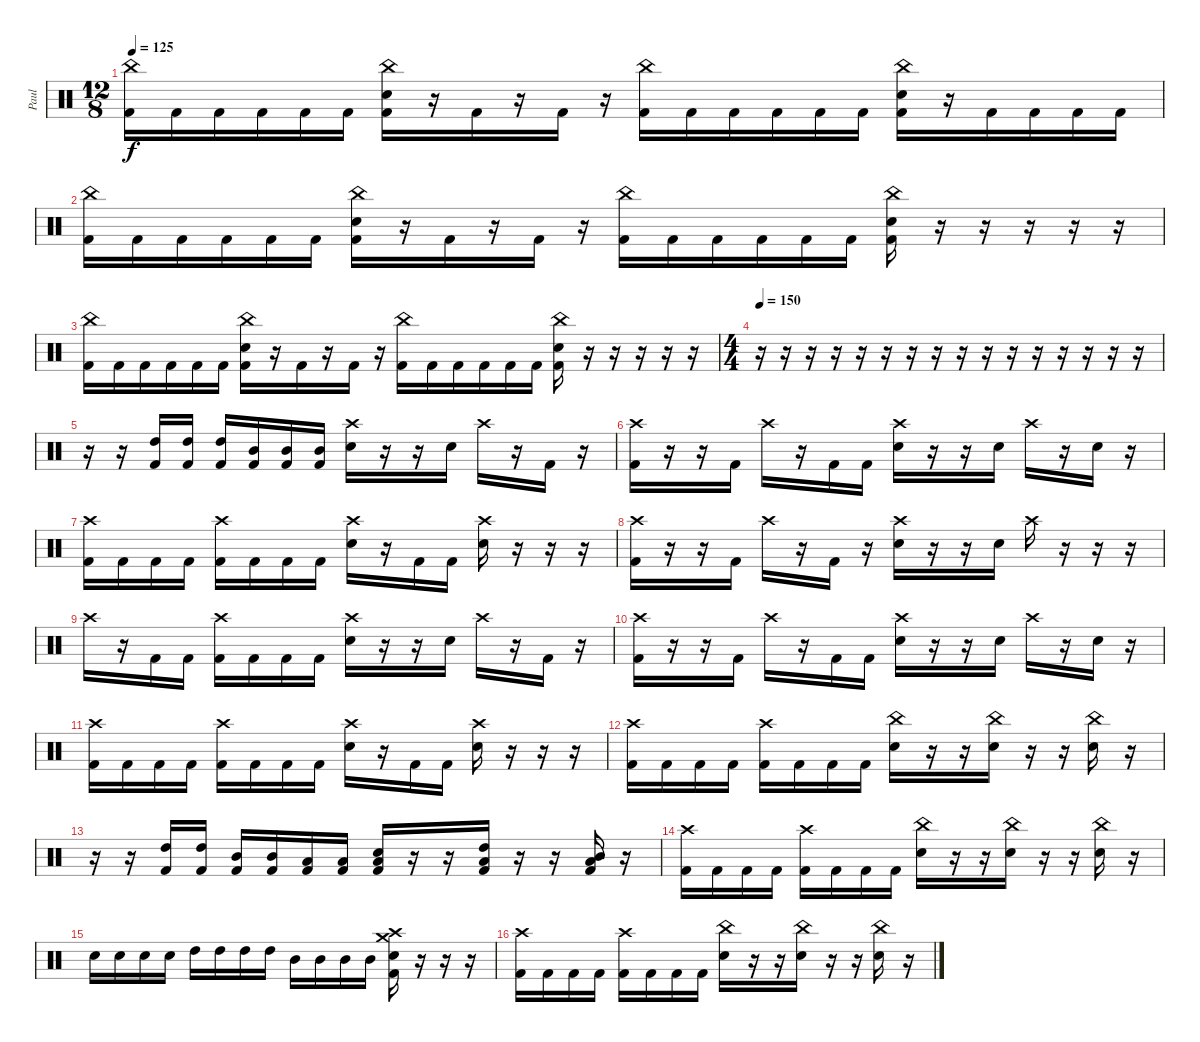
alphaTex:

\track ("Paul" "Paul") {instrument percussion}
\staff {score}
\articulation defaults
\ts (12 8)
\tempo 125
\clef neutral
\ks c
("China (hit)" "Kick (hit) 2").16{dy f} "Kick (hit) 2".16 "Kick (hit) 2".16 "Kick (hit) 2".16 "Kick (hit) 2".16 "Kick (hit) 2".16 ("China (hit)" "Electric Snare (hit)" "Kick (hit) 2").16 r.16 "Kick (hit) 2".16 r.16 "Kick (hit) 2".16 r.16 ("China (hit)" "Kick (hit) 2").16 "Kick (hit) 2".16 "Kick (hit) 2".16 "Kick (hit) 2".16 "Kick (hit) 2".16 "Kick (hit) 2".16 ("China (hit)" "Electric Snare (hit)" "Kick (hit) 2").16 r.16 "Kick (hit) 2".16 "Kick (hit) 2".16 "Kick (hit) 2".16 "Kick (hit) 2".16 |
("China (hit)" "Kick (hit) 2").16 "Kick (hit) 2".16 "Kick (hit) 2".16 "Kick (hit) 2".16 "Kick (hit) 2".16 "Kick (hit) 2".16 ("China (hit)" "Electric Snare (hit)" "Kick (hit) 2").16 r.16 "Kick (hit) 2".16 r.16 "Kick (hit) 2".16 r.16 ("China (hit)" "Kick (hit) 2").16 "Kick (hit) 2".16 "Kick (hit) 2".16 "Kick (hit) 2".16 "Kick (hit) 2".16 "Kick (hit) 2".16 ("China (hit)" "Electric Snare (hit)" "Kick (hit) 2").16 r.16 r.16 r.16 r.16 r.16 |
("China (hit)" "Kick (hit) 2").16 "Kick (hit) 2".16 "Kick (hit) 2".16 "Kick (hit) 2".16 "Kick (hit) 2".16 "Kick (hit) 2".16 ("China (hit)" "Electric Snare (hit)" "Kick (hit) 2").16 r.16 "Kick (hit) 2".16 r.16 "Kick (hit) 2".16 r.16 ("China (hit)" "Kick (hit) 2").16 "Kick (hit) 2".16 "Kick (hit) 2".16 "Kick (hit) 2".16 "Kick (hit) 2".16 "Kick (hit) 2".16 ("China (hit)" "Electric Snare (hit)" "Kick (hit) 2").16 r.16 r.16 r.16 r.16 r.16 |
\ts (4 4)
\tempo 150
r.16 r.16 r.16 r.16 r.16 r.16 r.16 r.16 r.16 r.16 r.16 r.16 r.16 r.16 r.16 r.16 |
r.16 r.16 ("High Tom (hit)" "Kick (hit) 2").16 ("High Tom (hit)" "Kick (hit) 2").16 ("High Tom (hit)" "Kick (hit) 2").16 ("Mid Tom (hit)" "Kick (hit) 2").16 ("Mid Tom (hit)" "Kick (hit) 2").16 ("Mid Tom (hit)" "Kick (hit) 2").16 ("Crash high (hit)" "Electric Snare (hit)").16 r.16 r.16 "Electric Snare (hit)".16 "Crash high (hit)".16 r.16 "Kick (hit) 2".16 r.16 |
("Crash high (hit)" "Kick (hit) 2").16 r.16 r.16 "Kick (hit) 2".16 "Crash high (hit)".16 r.16 "Kick (hit) 2".16 "Kick (hit) 2".16 ("Crash high (hit)" "Electric Snare (hit)").16 r.16 r.16 "Electric Snare (hit)".16 "Crash high (hit)".16 r.16 "Electric Snare (hit)".16 r.16 |
("Crash high (hit)" "Kick (hit) 2").16 "Kick (hit) 2".16 "Kick (hit) 2".16 "Kick (hit) 2".16 ("Crash high (hit)" "Kick (hit) 2").16 "Kick (hit) 2".16 "Kick (hit) 2".16 "Kick (hit) 2".16 ("Crash high (hit)" "Electric Snare (hit)").16 r.16 "Kick (hit) 2".16 "Kick (hit) 2".16 ("Crash high (hit)" "Electric Snare (hit)").16 r.16 r.16 r.16 |
("Crash high (hit)" "Kick (hit) 2").16 r.16 r.16 "Kick (hit) 2".16 "Crash high (hit)".16 r.16 "Kick (hit) 2".16 r.16 ("Crash high (hit)" "Electric Snare (hit)").16 r.16 r.16 "Electric Snare (hit)".16 "Crash high (hit)".16 r.16 r.16 r.16 |
"Crash high (hit)".16 r.16 "Kick (hit) 2".16 "Kick (hit) 2".16 ("Crash high (hit)" "Kick (hit) 2").16 "Kick (hit) 2".16 "Kick (hit) 2".16 "Kick (hit) 2".16 ("Crash high (hit)" "Electric Snare (hit)").16 r.16 r.16 "Electric Snare (hit)".16 "Crash high (hit)".16 r.16 "Kick (hit) 2".16 r.16 |
("Crash high (hit)" "Kick (hit) 2").16 r.16 r.16 "Kick (hit) 2".16 "Crash high (hit)".16 r.16 "Kick (hit) 2".16 "Kick (hit) 2".16 ("Crash high (hit)" "Electric Snare (hit)").16 r.16 r.16 "Electric Snare (hit)".16 "Crash high (hit)".16 r.16 "Electric Snare (hit)".16 r.16 |
("Crash high (hit)" "Kick (hit) 2").16 "Kick (hit) 2".16 "Kick (hit) 2".16 "Kick (hit) 2".16 ("Crash high (hit)" "Kick (hit) 2").16 "Kick (hit) 2".16 "Kick (hit) 2".16 "Kick (hit) 2".16 ("Crash high (hit)" "Electric Snare (hit)").16 r.16 "Kick (hit) 2".16 "Kick (hit) 2".16 ("Crash high (hit)" "Electric Snare (hit)").16 r.16 r.16 r.16 |
("Crash high (hit)" "Kick (hit) 2").16 "Kick (hit) 2".16 "Kick (hit) 2".16 "Kick (hit) 2".16 ("Crash high (hit)" "Kick (hit) 2").16 "Kick (hit) 2".16 "Kick (hit) 2".16 "Kick (hit) 2".16 ("China (hit)" "Electric Snare (hit)").16 r.16 r.16 ("China (hit)" "Electric Snare (hit)").16 r.16 r.16 ("China (hit)" "Electric Snare (hit)").16 r.16 |
r.16 r.16 ("High Tom (hit)" "Kick (hit) 2").16 ("High Tom (hit)" "Kick (hit) 2").16 ("Mid Tom (hit)" "Kick (hit) 2").16 ("Mid Tom (hit)" "Kick (hit) 2").16 ("Low Tom (hit)" "Kick (hit) 2").16 ("Low Tom (hit)" "Kick (hit) 2").16 ("Electric Snare (hit)" "Low Tom (hit)" "Kick (hit) 2").16 r.16 r.16 ("High Tom (hit)" "Low Tom (hit)" "Kick (hit) 2").16 r.16 r.16 ("Mid Tom (hit)" "Low Tom (hit)" "Kick (hit) 2").16 r.16 |
("Crash high (hit)" "Kick (hit) 2").16 "Kick (hit) 2".16 "Kick (hit) 2".16 "Kick (hit) 2".16 ("Crash high (hit)" "Kick (hit) 2").16 "Kick (hit) 2".16 "Kick (hit) 2".16 "Kick (hit) 2".16 ("China (hit)" "Electric Snare (hit)").16 r.16 r.16 ("China (hit)" "Electric Snare (hit)").16 r.16 r.16 ("China (hit)" "Electric Snare (hit)").16 r.16 |
"Electric Snare (hit)".16 "Electric Snare (hit)".16 "Electric Snare (hit)".16 "Electric Snare (hit)".16 "High Tom (hit)".16 "High Tom (hit)".16 "High Tom (hit)".16 "High Tom (hit)".16 "Mid Tom (hit)".16 "Mid Tom (hit)".16 "Mid Tom (hit)".16 "Mid Tom (hit)".16 ("Crash high (hit)" "Crash medium (hit)" "Electric Snare (hit)" "Kick (hit) 2").16 r.16 r.16 r.16 |
("Crash high (hit)" "Kick (hit) 2").16 "Kick (hit) 2".16 "Kick (hit) 2".16 "Kick (hit) 2".16 ("Crash high (hit)" "Kick (hit) 2").16 "Kick (hit) 2".16 "Kick (hit) 2".16 "Kick (hit) 2".16 ("China (hit)" "Electric Snare (hit)").16 r.16 r.16 ("China (hit)" "Electric Snare (hit)").16 r.16 r.16 ("China (hit)" "Electric Snare (hit)").16 r.16
